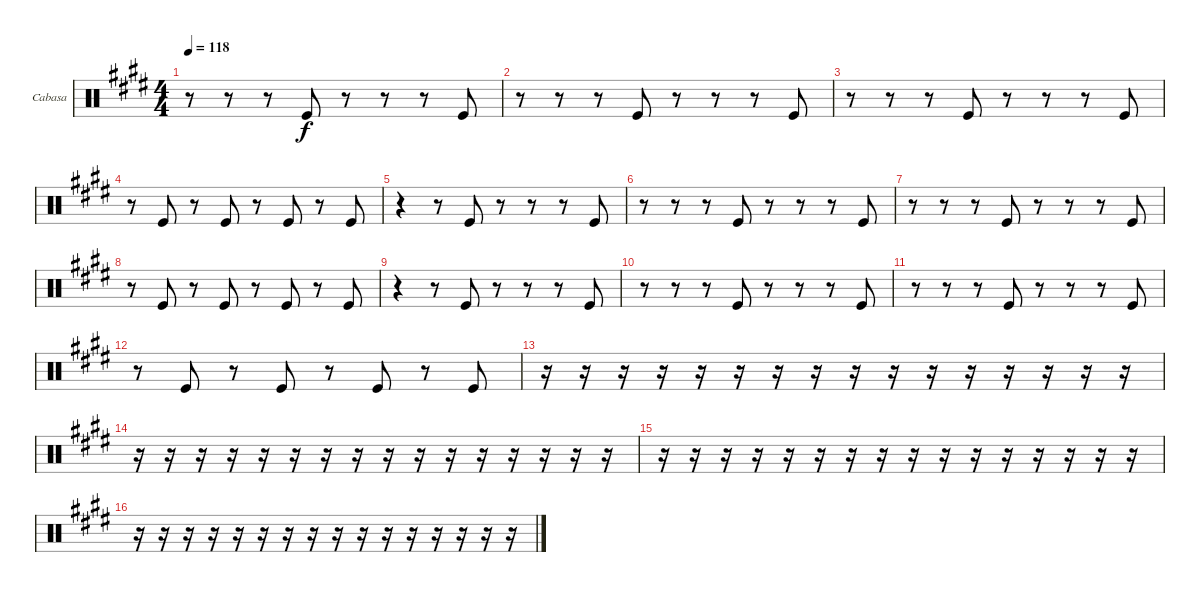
\bracketExtendMode groupsimilarinstruments
\firstSystemTrackNameOrientation horizontal
\otherSystemsTrackNameOrientation horizontal
\track ("Cabasa" "Cabasa") {instrument percussion}
\staff {score}
\articulation defaults
\ts (4 4)
\tempo 118
\clef neutral
\ks e
r.8{dy f} r.8 r.8 "Kick (hit)".8 r.8 r.8 r.8 "Kick (hit)".8 |
r.8 r.8 r.8 "Kick (hit)".8 r.8 r.8 r.8 "Kick (hit)".8 |
r.8 r.8 r.8 "Kick (hit)".8 r.8 r.8 r.8 "Kick (hit)".8 |
r.8 "Kick (hit)".8 r.8 "Kick (hit)".8 r.8 "Kick (hit)".8 r.8 "Kick (hit)".8 |
r.4 r.8 "Kick (hit)".8 r.8 r.8 r.8 "Kick (hit)".8 |
r.8 r.8 r.8 "Kick (hit)".8 r.8 r.8 r.8 "Kick (hit)".8 |
r.8 r.8 r.8 "Kick (hit)".8 r.8 r.8 r.8 "Kick (hit)".8 |
r.8 "Kick (hit)".8 r.8 "Kick (hit)".8 r.8 "Kick (hit)".8 r.8 "Kick (hit)".8 |
r.4 r.8 "Kick (hit)".8 r.8 r.8 r.8 "Kick (hit)".8 |
r.8 r.8 r.8 "Kick (hit)".8 r.8 r.8 r.8 "Kick (hit)".8 |
r.8 r.8 r.8 "Kick (hit)".8 r.8 r.8 r.8 "Kick (hit)".8 |
r.8 "Kick (hit)".8 r.8 "Kick (hit)".8 r.8 "Kick (hit)".8 r.8 "Kick (hit)".8 |
r.16 r.16 r.16 r.16 r.16 r.16 r.16 r.16 r.16 r.16 r.16 r.16 r.16 r.16 r.16 r.16 |
r.16 r.16 r.16 r.16 r.16 r.16 r.16 r.16 r.16 r.16 r.16 r.16 r.16 r.16 r.16 r.16 |
r.16 r.16 r.16 r.16 r.16 r.16 r.16 r.16 r.16 r.16 r.16 r.16 r.16 r.16 r.16 r.16 |
r.16 r.16 r.16 r.16 r.16 r.16 r.16 r.16 r.16 r.16 r.16 r.16 r.16 r.16 r.16 r.16
